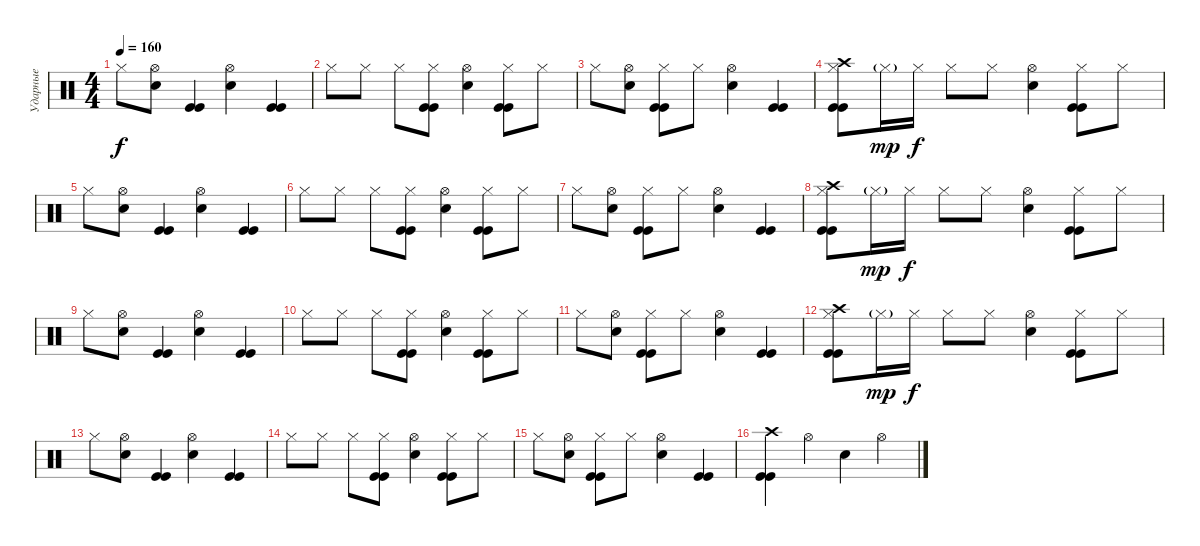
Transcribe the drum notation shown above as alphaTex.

\track ("Ударные" "Ударные") {instrument percussion}
\staff {score}
\articulation defaults
\ts (4 4)
\tempo 160
\clef neutral
\ks c "Hi-Hat (closed)".8{dy f}
("Electric Snare (hit)" "Hi-Hat (open)").8 ("Kick (hit)" "Kick (hit)").4 ("Electric Snare (hit)" "Hi-Hat (open)").4 ("Kick (hit)" "Kick (hit)").4 |
"Hi-Hat (closed)".8 "Hi-Hat (closed)".8 "Hi-Hat (closed)".8 ("Hi-Hat (closed)" "Kick (hit)" "Kick (hit)").8 ("Electric Snare (hit)" "Hi-Hat (open)").4 ("Hi-Hat (closed)" "Kick (hit)" "Kick (hit)").8 "Hi-Hat (closed)".8 |
"Hi-Hat (closed)".8 ("Electric Snare (hit)" "Hi-Hat (open)").8 ("Hi-Hat (closed)" "Kick (hit)" "Kick (hit)").8 "Hi-Hat (closed)".8 ("Electric Snare (hit)" "Hi-Hat (open)").4 ("Kick (hit)" "Kick (hit)").4 |
("Crash high (hit)" "Hi-Hat (closed)" "Kick (hit)" "Kick (hit)").8 "Hi-Hat (closed)"{g}.16{dy mp} "Hi-Hat (closed)".16{dy f} "Hi-Hat (closed)".8 "Hi-Hat (closed)".8 ("Electric Snare (hit)" "Hi-Hat (open)").4 ("Hi-Hat (closed)" "Kick (hit)" "Kick (hit)").8 "Hi-Hat (closed)".8 |
"Hi-Hat (closed)".8 ("Electric Snare (hit)" "Hi-Hat (open)").8 ("Kick (hit)" "Kick (hit)").4 ("Electric Snare (hit)" "Hi-Hat (open)").4 ("Kick (hit)" "Kick (hit)").4 |
"Hi-Hat (closed)".8 "Hi-Hat (closed)".8 "Hi-Hat (closed)".8 ("Hi-Hat (closed)" "Kick (hit)" "Kick (hit)").8 ("Electric Snare (hit)" "Hi-Hat (open)").4 ("Hi-Hat (closed)" "Kick (hit)" "Kick (hit)").8 "Hi-Hat (closed)".8 |
"Hi-Hat (closed)".8 ("Electric Snare (hit)" "Hi-Hat (open)").8 ("Hi-Hat (closed)" "Kick (hit)" "Kick (hit)").8 "Hi-Hat (closed)".8 ("Electric Snare (hit)" "Hi-Hat (open)").4 ("Kick (hit)" "Kick (hit)").4 |
("Crash high (hit)" "Hi-Hat (closed)" "Kick (hit)" "Kick (hit)").8 "Hi-Hat (closed)"{g}.16{dy mp} "Hi-Hat (closed)".16{dy f} "Hi-Hat (closed)".8 "Hi-Hat (closed)".8 ("Electric Snare (hit)" "Hi-Hat (open)").4 ("Hi-Hat (closed)" "Kick (hit)" "Kick (hit)").8 "Hi-Hat (closed)".8 |
"Hi-Hat (closed)".8 ("Electric Snare (hit)" "Hi-Hat (open)").8 ("Kick (hit)" "Kick (hit)").4 ("Electric Snare (hit)" "Hi-Hat (open)").4 ("Kick (hit)" "Kick (hit)").4 |
"Hi-Hat (closed)".8 "Hi-Hat (closed)".8 "Hi-Hat (closed)".8 ("Hi-Hat (closed)" "Kick (hit)" "Kick (hit)").8 ("Electric Snare (hit)" "Hi-Hat (open)").4 ("Hi-Hat (closed)" "Kick (hit)" "Kick (hit)").8 "Hi-Hat (closed)".8 |
"Hi-Hat (closed)".8 ("Electric Snare (hit)" "Hi-Hat (open)").8 ("Hi-Hat (closed)" "Kick (hit)" "Kick (hit)").8 "Hi-Hat (closed)".8 ("Electric Snare (hit)" "Hi-Hat (open)").4 ("Kick (hit)" "Kick (hit)").4 |
("Crash high (hit)" "Hi-Hat (closed)" "Kick (hit)" "Kick (hit)").8 "Hi-Hat (closed)"{g}.16{dy mp} "Hi-Hat (closed)".16{dy f} "Hi-Hat (closed)".8 "Hi-Hat (closed)".8 ("Electric Snare (hit)" "Hi-Hat (open)").4 ("Hi-Hat (closed)" "Kick (hit)" "Kick (hit)").8 "Hi-Hat (closed)".8 |
"Hi-Hat (closed)".8 ("Electric Snare (hit)" "Hi-Hat (open)").8 ("Kick (hit)" "Kick (hit)").4 ("Electric Snare (hit)" "Hi-Hat (open)").4 ("Kick (hit)" "Kick (hit)").4 |
"Hi-Hat (closed)".8 "Hi-Hat (closed)".8 "Hi-Hat (closed)".8 ("Hi-Hat (closed)" "Kick (hit)" "Kick (hit)").8 ("Electric Snare (hit)" "Hi-Hat (open)").4 ("Hi-Hat (closed)" "Kick (hit)" "Kick (hit)").8 "Hi-Hat (closed)".8 |
"Hi-Hat (closed)".8 ("Electric Snare (hit)" "Hi-Hat (open)").8 ("Hi-Hat (closed)" "Kick (hit)" "Kick (hit)").8 "Hi-Hat (closed)".8 ("Electric Snare (hit)" "Hi-Hat (open)").4 ("Kick (hit)" "Kick (hit)").4 |
("Crash high (hit)" "Kick (hit)" "Kick (hit)").4 "Hi-Hat (open)".4 "Electric Snare (hit)".4 "Hi-Hat (open)".4
